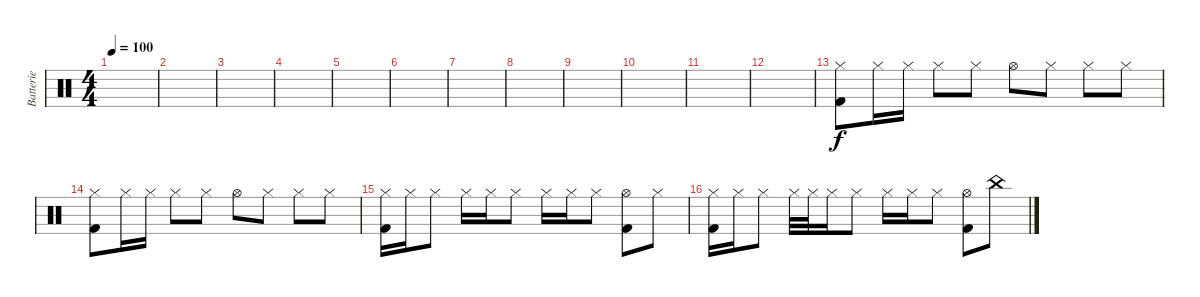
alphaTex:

\track ("Batterie" "Batterie") {instrument percussion}
\staff {score}
\articulation defaults
\ts (4 4)
\tempo 100
\clef neutral
\ks c
|
|
|
|
|
|
|
|
|
|
|
|
("Hi-Hat (closed)" "Kick (hit) 2").8 "Hi-Hat (closed)".16 "Hi-Hat (closed)".16 "Hi-Hat (closed)".8 "Hi-Hat (closed)".8 "Hi-Hat (open)".8 "Hi-Hat (closed)".8 "Hi-Hat (closed)".8 "Hi-Hat (closed)".8 |
("Hi-Hat (closed)" "Kick (hit) 2").8 "Hi-Hat (closed)".16 "Hi-Hat (closed)".16 "Hi-Hat (closed)".8 "Hi-Hat (closed)".8 "Hi-Hat (open)".8 "Hi-Hat (closed)".8 "Hi-Hat (closed)".8 "Hi-Hat (closed)".8 |
("Hi-Hat (closed)" "Kick (hit) 2").16 "Hi-Hat (closed)".16 "Hi-Hat (closed)".8 "Hi-Hat (closed)".16 "Hi-Hat (closed)".16 "Hi-Hat (closed)".8 "Hi-Hat (closed)".16 "Hi-Hat (closed)".16 "Hi-Hat (closed)".8 ("Hi-Hat (open)" "Kick (hit) 2").8 "Hi-Hat (closed)".8 |
("Hi-Hat (closed)" "Kick (hit) 2").16 "Hi-Hat (closed)".16 "Hi-Hat (closed)".8 "Hi-Hat (closed)".32 "Hi-Hat (closed)".32 "Hi-Hat (closed)".16 "Hi-Hat (closed)".8 "Hi-Hat (closed)".16 "Hi-Hat (closed)".16 "Hi-Hat (closed)".8 ("Hi-Hat (open)" "Kick (hit) 2").8 "China (hit)".8
